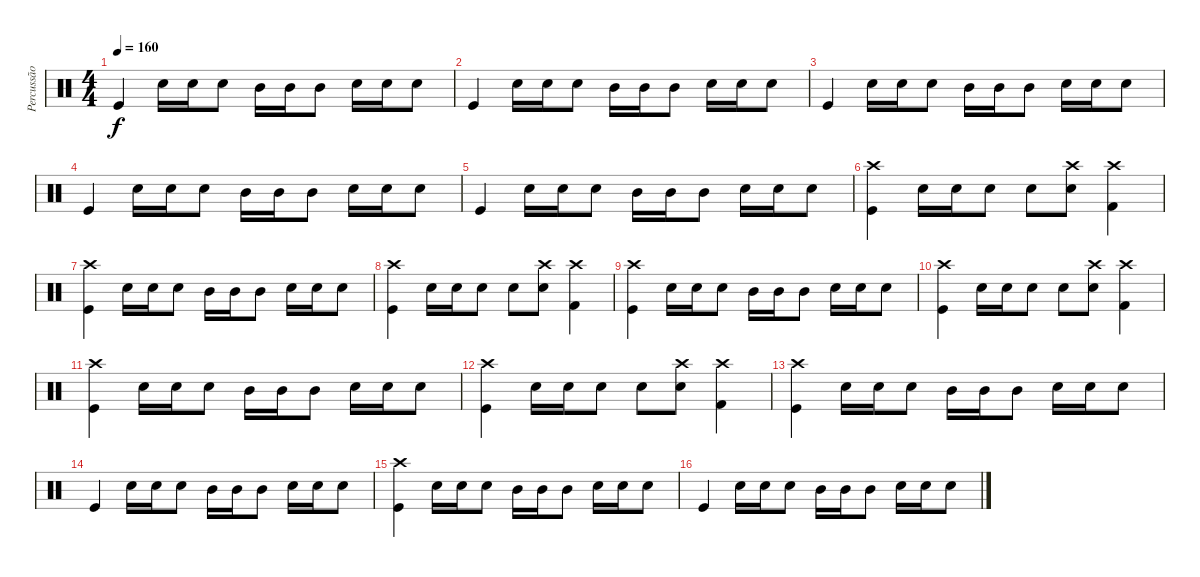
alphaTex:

\track ("Percussão" "Percussão") {instrument percussion}
\staff {score}
\articulation defaults
\ts (4 4)
\tempo 160
\clef neutral
\ks c "Kick (hit)".4{dy f} "Snare (hit) 2".16 "Snare (hit) 2".16 "Snare (hit) 2".8 "Mid Tom (hit)".16 "Mid Tom (hit)".16 "Mid Tom (hit)".8 "Snare (hit) 2".16 "Snare (hit) 2".16 "Snare (hit) 2".8
|
"Kick (hit)".4 "Snare (hit) 2".16 "Snare (hit) 2".16 "Snare (hit) 2".8 "Mid Tom (hit)".16 "Mid Tom (hit)".16 "Mid Tom (hit)".8 "Snare (hit) 2".16 "Snare (hit) 2".16 "Snare (hit) 2".8 |
"Kick (hit)".4 "Snare (hit) 2".16 "Snare (hit) 2".16 "Snare (hit) 2".8 "Mid Tom (hit)".16 "Mid Tom (hit)".16 "Mid Tom (hit)".8 "Snare (hit) 2".16 "Snare (hit) 2".16 "Snare (hit) 2".8 |
"Kick (hit)".4 "Snare (hit) 2".16 "Snare (hit) 2".16 "Snare (hit) 2".8 "Mid Tom (hit)".16 "Mid Tom (hit)".16 "Mid Tom (hit)".8 "Snare (hit) 2".16 "Snare (hit) 2".16 "Snare (hit) 2".8 |
"Kick (hit)".4 "Snare (hit) 2".16 "Snare (hit) 2".16 "Snare (hit) 2".8 "Mid Tom (hit)".16 "Mid Tom (hit)".16 "Mid Tom (hit)".8 "Snare (hit) 2".16 "Snare (hit) 2".16 "Snare (hit) 2".8 |
("Crash high (hit)" "Kick (hit)").4 "Snare (hit) 2".16 "Snare (hit) 2".16 "Snare (hit) 2".8 "Snare (hit) 2".8 ("Crash high (hit)" "Snare (hit) 2").8 ("Crash high (hit)" "Kick (hit) 2").4 |
("Crash high (hit)" "Kick (hit)").4 "Snare (hit) 2".16 "Snare (hit) 2".16 "Snare (hit) 2".8 "Mid Tom (hit)".16 "Mid Tom (hit)".16 "Mid Tom (hit)".8 "Snare (hit) 2".16 "Snare (hit) 2".16 "Snare (hit) 2".8 |
("Crash high (hit)" "Kick (hit)").4 "Snare (hit) 2".16 "Snare (hit) 2".16 "Snare (hit) 2".8 "Snare (hit) 2".8 ("Crash high (hit)" "Snare (hit) 2").8 ("Crash high (hit)" "Kick (hit) 2").4 |
("Crash high (hit)" "Kick (hit)").4 "Snare (hit) 2".16 "Snare (hit) 2".16 "Snare (hit) 2".8 "Mid Tom (hit)".16 "Mid Tom (hit)".16 "Mid Tom (hit)".8 "Snare (hit) 2".16 "Snare (hit) 2".16 "Snare (hit) 2".8 |
("Crash high (hit)" "Kick (hit)").4 "Snare (hit) 2".16 "Snare (hit) 2".16 "Snare (hit) 2".8 "Snare (hit) 2".8 ("Crash high (hit)" "Snare (hit) 2").8 ("Crash high (hit)" "Kick (hit) 2").4 |
("Crash high (hit)" "Kick (hit)").4 "Snare (hit) 2".16 "Snare (hit) 2".16 "Snare (hit) 2".8 "Mid Tom (hit)".16 "Mid Tom (hit)".16 "Mid Tom (hit)".8 "Snare (hit) 2".16 "Snare (hit) 2".16 "Snare (hit) 2".8 |
("Crash high (hit)" "Kick (hit)").4 "Snare (hit) 2".16 "Snare (hit) 2".16 "Snare (hit) 2".8 "Snare (hit) 2".8 ("Crash high (hit)" "Snare (hit) 2").8 ("Crash high (hit)" "Kick (hit) 2").4 |
("Crash high (hit)" "Kick (hit)").4 "Snare (hit) 2".16 "Snare (hit) 2".16 "Snare (hit) 2".8 "Mid Tom (hit)".16 "Mid Tom (hit)".16 "Mid Tom (hit)".8 "Snare (hit) 2".16 "Snare (hit) 2".16 "Snare (hit) 2".8 |
"Kick (hit)".4 "Snare (hit) 2".16 "Snare (hit) 2".16 "Snare (hit) 2".8 "Mid Tom (hit)".16 "Mid Tom (hit)".16 "Mid Tom (hit)".8 "Snare (hit) 2".16 "Snare (hit) 2".16 "Snare (hit) 2".8 |
("Crash high (hit)" "Kick (hit)").4 "Snare (hit) 2".16 "Snare (hit) 2".16 "Snare (hit) 2".8 "Mid Tom (hit)".16 "Mid Tom (hit)".16 "Mid Tom (hit)".8 "Snare (hit) 2".16 "Snare (hit) 2".16 "Snare (hit) 2".8 |
"Kick (hit)".4 "Snare (hit) 2".16 "Snare (hit) 2".16 "Snare (hit) 2".8 "Mid Tom (hit)".16 "Mid Tom (hit)".16 "Mid Tom (hit)".8 "Snare (hit) 2".16 "Snare (hit) 2".16 "Snare (hit) 2".8
